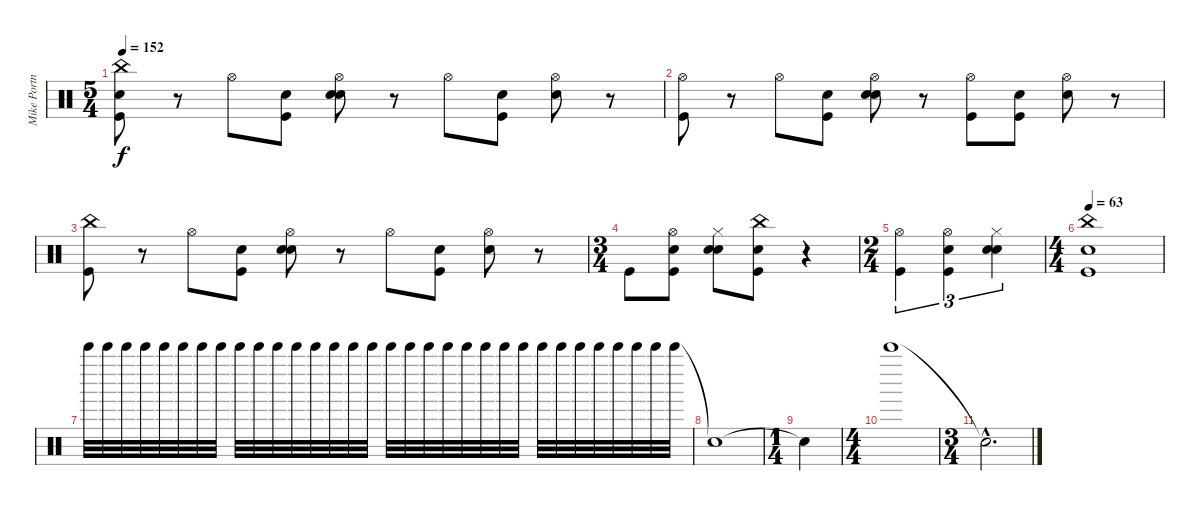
\track ("Mike Portnoy - Drum" "Mike Portn") {instrument percussion}
\staff {score}
\articulation defaults
\ts (5 4)
\tempo 152
\clef neutral
\ks c
("Snare (hit)" "Kick (hit)" "China (hit)").8{dy f} r.8 "Hi-Hat (open)".8 ("Snare (hit)" "Kick (hit)").8 ("Snare (hit)" "Snare (hit) 2" "Hi-Hat (open)").8 r.8 "Hi-Hat (open)".8 ("Snare (hit)" "Kick (hit)").8 ("Snare (hit)" "Hi-Hat (open)").8 r.8 |
("Kick (hit)" "Hi-Hat (open)").8 r.8 "Hi-Hat (open)".8 ("Snare (hit)" "Kick (hit)").8 ("Snare (hit)" "Snare (hit) 2" "Hi-Hat (open)").8 r.8 ("Kick (hit)" "Hi-Hat (open)").8 ("Snare (hit)" "Kick (hit)").8 ("Snare (hit)" "Hi-Hat (open)").8 r.8 |
("Kick (hit)" "China (hit)").8 r.8 "Hi-Hat (open)".8 ("Snare (hit)" "Kick (hit)").8 ("Snare (hit)" "Snare (hit) 2" "Hi-Hat (open)").8 r.8 "Hi-Hat (open)".8 ("Snare (hit)" "Kick (hit)").8 ("Snare (hit)" "Hi-Hat (open)").8 r.8 |
\ts (3 4)
"Kick (hit)".8 ("Snare (hit)" "Kick (hit)" "Hi-Hat (open)").8 ("Snare (hit)" "Snare (hit) 2" "Hi-Hat (closed)").8 ("Snare (hit)" "Kick (hit)" "China (hit)").8 r.4 |
\ts (2 4)
("Kick (hit)" "Hi-Hat (open)").4{tu (3 2)} ("Snare (hit)" "Kick (hit)" "Hi-Hat (open)").4{tu (3 2)} ("Snare (hit)" "Snare (hit) 2" "Hi-Hat (closed)").4{tu (3 2)} |
\ts (4 4)
\tempo 63
("Snare (hit)" "Kick (hit)" "China (hit)").1 |
"Bell Tree (hit)".32 "Bell Tree (hit)".32 "Bell Tree (hit)".32 "Bell Tree (hit)".32 "Bell Tree (hit)".32 "Bell Tree (hit)".32 "Bell Tree (hit)".32 "Bell Tree (hit)".32 "Bell Tree (hit)".32 "Bell Tree (hit)".32 "Bell Tree (hit)".32 "Bell Tree (hit)".32 "Bell Tree (hit)".32 "Bell Tree (hit)".32 "Bell Tree (hit)".32 "Bell Tree (hit)".32 "Bell Tree (hit)".32 "Bell Tree (hit)".32 "Bell Tree (hit)".32 "Bell Tree (hit)".32 "Bell Tree (hit)".32 "Bell Tree (hit)".32 "Bell Tree (hit)".32 "Bell Tree (hit)".32 "Bell Tree (hit)".32 "Bell Tree (hit)".32 "Bell Tree (hit)".32 "Bell Tree (hit)".32 "Bell Tree (hit)".32 "Bell Tree (hit)".32 "Bell Tree (hit)".32 "Bell Tree (hit)".32 |
"Snare (hit)"{t}.1 |
\ts (1 4)
"Snare (hit)"{t}.4 |
\ts (4 4)
"Bell Tree (hit)".1 |
\ts (3 4)
"Snare (hit)"{hac t}.2{d}
